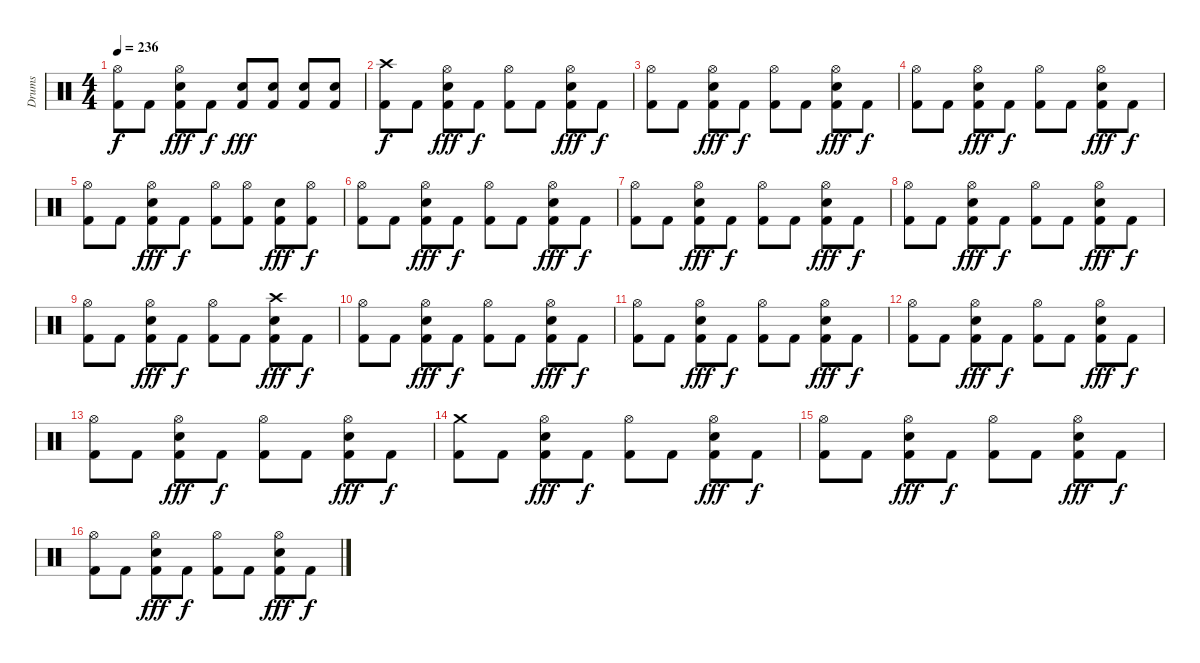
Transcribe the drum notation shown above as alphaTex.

\track ("Drums" "Drums") {instrument percussion}
\staff {score}
\articulation defaults
\ts (4 4)
\tempo 236
\clef neutral
\ks c
("Hi-Hat (open)" "Kick (hit) 2").8{dy f} "Kick (hit) 2".8 ("Hi-Hat (open)" "Kick (hit) 2" "Electric Snare (hit)").8{dy fff} "Kick (hit) 2".8{dy f} ("Kick (hit) 2" "Electric Snare (hit)").8{dy fff} ("Kick (hit) 2" "Electric Snare (hit)").8 ("Kick (hit) 2" "Electric Snare (hit)").8 ("Kick (hit) 2" "Electric Snare (hit)").8 |
("Crash high (hit)" "Kick (hit) 2").8{dy f} "Kick (hit) 2".8 ("Hi-Hat (open)" "Kick (hit) 2" "Electric Snare (hit)").8{dy fff} "Kick (hit) 2".8{dy f} ("Hi-Hat (open)" "Kick (hit) 2").8 "Kick (hit) 2".8 ("Hi-Hat (open)" "Kick (hit) 2" "Electric Snare (hit)").8{dy fff} "Kick (hit) 2".8{dy f} |
("Hi-Hat (open)" "Kick (hit) 2").8 "Kick (hit) 2".8 ("Hi-Hat (open)" "Kick (hit) 2" "Electric Snare (hit)").8{dy fff} "Kick (hit) 2".8{dy f} ("Hi-Hat (open)" "Kick (hit) 2").8 "Kick (hit) 2".8 ("Hi-Hat (open)" "Kick (hit) 2" "Electric Snare (hit)").8{dy fff} "Kick (hit) 2".8{dy f} |
("Hi-Hat (open)" "Kick (hit) 2").8 "Kick (hit) 2".8 ("Hi-Hat (open)" "Kick (hit) 2" "Electric Snare (hit)").8{dy fff} "Kick (hit) 2".8{dy f} ("Hi-Hat (open)" "Kick (hit) 2").8 "Kick (hit) 2".8 ("Hi-Hat (open)" "Kick (hit) 2" "Electric Snare (hit)").8{dy fff} "Kick (hit) 2".8{dy f} |
("Hi-Hat (open)" "Kick (hit) 2").8 "Kick (hit) 2".8 ("Hi-Hat (open)" "Kick (hit) 2" "Electric Snare (hit)").8{dy fff} "Kick (hit) 2".8{dy f} ("Hi-Hat (open)" "Kick (hit) 2").8 ("Hi-Hat (open)" "Kick (hit) 2").8 ("Kick (hit) 2" "Electric Snare (hit)").8{dy fff} ("Hi-Hat (open)" "Kick (hit) 2").8{dy f} |
("Hi-Hat (open)" "Kick (hit) 2").8 "Kick (hit) 2".8 ("Hi-Hat (open)" "Kick (hit) 2" "Electric Snare (hit)").8{dy fff} "Kick (hit) 2".8{dy f} ("Hi-Hat (open)" "Kick (hit) 2").8 "Kick (hit) 2".8 ("Hi-Hat (open)" "Kick (hit) 2" "Electric Snare (hit)").8{dy fff} "Kick (hit) 2".8{dy f} |
("Hi-Hat (open)" "Kick (hit) 2").8 "Kick (hit) 2".8 ("Hi-Hat (open)" "Kick (hit) 2" "Electric Snare (hit)").8{dy fff} "Kick (hit) 2".8{dy f} ("Hi-Hat (open)" "Kick (hit) 2").8 "Kick (hit) 2".8 ("Hi-Hat (open)" "Kick (hit) 2" "Electric Snare (hit)").8{dy fff} "Kick (hit) 2".8{dy f} |
("Hi-Hat (open)" "Kick (hit) 2").8 "Kick (hit) 2".8 ("Hi-Hat (open)" "Kick (hit) 2" "Electric Snare (hit)").8{dy fff} "Kick (hit) 2".8{dy f} ("Hi-Hat (open)" "Kick (hit) 2").8 "Kick (hit) 2".8 ("Hi-Hat (open)" "Kick (hit) 2" "Electric Snare (hit)").8{dy fff} "Kick (hit) 2".8{dy f} |
("Hi-Hat (open)" "Kick (hit) 2").8 "Kick (hit) 2".8 ("Hi-Hat (open)" "Kick (hit) 2" "Electric Snare (hit)").8{dy fff} "Kick (hit) 2".8{dy f} ("Hi-Hat (open)" "Kick (hit) 2").8 "Kick (hit) 2".8 ("Crash high (hit)" "Kick (hit) 2" "Electric Snare (hit)").8{dy fff} "Kick (hit) 2".8{dy f} |
("Hi-Hat (open)" "Kick (hit) 2").8 "Kick (hit) 2".8 ("Hi-Hat (open)" "Kick (hit) 2" "Electric Snare (hit)").8{dy fff} "Kick (hit) 2".8{dy f} ("Hi-Hat (open)" "Kick (hit) 2").8 "Kick (hit) 2".8 ("Hi-Hat (open)" "Kick (hit) 2" "Electric Snare (hit)").8{dy fff} "Kick (hit) 2".8{dy f} |
("Hi-Hat (open)" "Kick (hit) 2").8 "Kick (hit) 2".8 ("Hi-Hat (open)" "Kick (hit) 2" "Electric Snare (hit)").8{dy fff} "Kick (hit) 2".8{dy f} ("Hi-Hat (open)" "Kick (hit) 2").8 "Kick (hit) 2".8 ("Hi-Hat (open)" "Kick (hit) 2" "Electric Snare (hit)").8{dy fff} "Kick (hit) 2".8{dy f} |
("Hi-Hat (open)" "Kick (hit) 2").8 "Kick (hit) 2".8 ("Hi-Hat (open)" "Kick (hit) 2" "Electric Snare (hit)").8{dy fff} "Kick (hit) 2".8{dy f} ("Hi-Hat (open)" "Kick (hit) 2").8 "Kick (hit) 2".8 ("Hi-Hat (open)" "Kick (hit) 2" "Electric Snare (hit)").8{dy fff} "Kick (hit) 2".8{dy f} |
("Hi-Hat (open)" "Kick (hit) 2").8 "Kick (hit) 2".8 ("Hi-Hat (open)" "Kick (hit) 2" "Electric Snare (hit)").8{dy fff} "Kick (hit) 2".8{dy f} ("Hi-Hat (open)" "Kick (hit) 2").8 "Kick (hit) 2".8 ("Hi-Hat (open)" "Kick (hit) 2" "Electric Snare (hit)").8{dy fff} "Kick (hit) 2".8{dy f} |
("Crash medium (hit)" "Kick (hit) 2").8 "Kick (hit) 2".8 ("Hi-Hat (open)" "Kick (hit) 2" "Electric Snare (hit)").8{dy fff} "Kick (hit) 2".8{dy f} ("Hi-Hat (open)" "Kick (hit) 2").8 "Kick (hit) 2".8 ("Hi-Hat (open)" "Kick (hit) 2" "Electric Snare (hit)").8{dy fff} "Kick (hit) 2".8{dy f} |
("Hi-Hat (open)" "Kick (hit) 2").8 "Kick (hit) 2".8 ("Hi-Hat (open)" "Kick (hit) 2" "Electric Snare (hit)").8{dy fff} "Kick (hit) 2".8{dy f} ("Hi-Hat (open)" "Kick (hit) 2").8 "Kick (hit) 2".8 ("Hi-Hat (open)" "Kick (hit) 2" "Electric Snare (hit)").8{dy fff} "Kick (hit) 2".8{dy f} |
("Hi-Hat (open)" "Kick (hit) 2").8 "Kick (hit) 2".8 ("Hi-Hat (open)" "Kick (hit) 2" "Electric Snare (hit)").8{dy fff} "Kick (hit) 2".8{dy f} ("Hi-Hat (open)" "Kick (hit) 2").8 "Kick (hit) 2".8 ("Hi-Hat (open)" "Kick (hit) 2" "Electric Snare (hit)").8{dy fff} "Kick (hit) 2".8{dy f}
